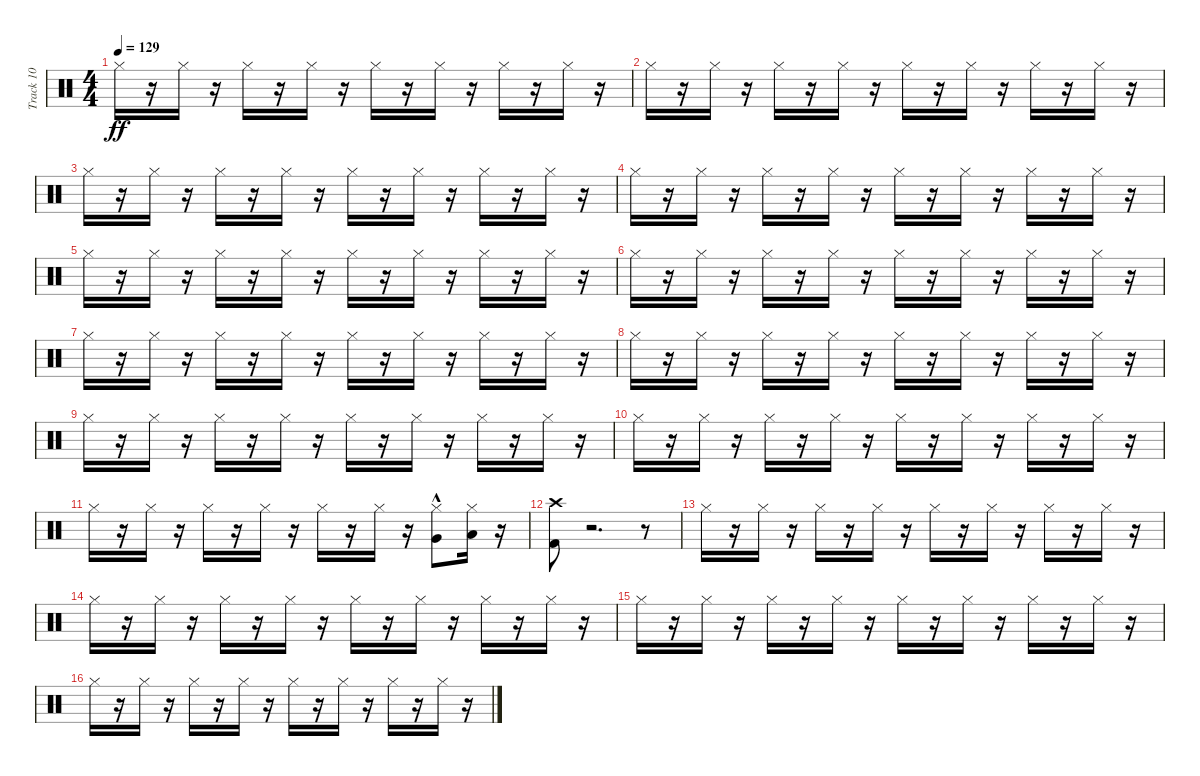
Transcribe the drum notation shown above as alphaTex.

\track ("Track 10" "Track 10") {instrument percussion}
\staff {score}
\articulation defaults
\ts (4 4)
\tempo 129
\clef neutral
\ks c "Hi-Hat (closed)".16{dy ff}
r.16 "Hi-Hat (closed)".16 r.16 "Hi-Hat (closed)".16 r.16 "Hi-Hat (closed)".16 r.16 "Hi-Hat (closed)".16 r.16 "Hi-Hat (closed)".16 r.16 "Hi-Hat (closed)".16 r.16 "Hi-Hat (closed)".16 r.16 |
"Hi-Hat (closed)".16 r.16 "Hi-Hat (closed)".16 r.16 "Hi-Hat (closed)".16 r.16 "Hi-Hat (closed)".16 r.16 "Hi-Hat (closed)".16 r.16 "Hi-Hat (closed)".16 r.16 "Hi-Hat (closed)".16 r.16 "Hi-Hat (closed)".16 r.16 |
"Hi-Hat (closed)".16 r.16 "Hi-Hat (closed)".16 r.16 "Hi-Hat (closed)".16 r.16 "Hi-Hat (closed)".16 r.16 "Hi-Hat (closed)".16 r.16 "Hi-Hat (closed)".16 r.16 "Hi-Hat (closed)".16 r.16 "Hi-Hat (closed)".16 r.16 |
"Hi-Hat (closed)".16 r.16 "Hi-Hat (closed)".16 r.16 "Hi-Hat (closed)".16 r.16 "Hi-Hat (closed)".16 r.16 "Hi-Hat (closed)".16 r.16 "Hi-Hat (closed)".16 r.16 "Hi-Hat (closed)".16 r.16 "Hi-Hat (closed)".16 r.16 |
"Hi-Hat (closed)".16 r.16 "Hi-Hat (closed)".16 r.16 "Hi-Hat (closed)".16 r.16 "Hi-Hat (closed)".16 r.16 "Hi-Hat (closed)".16 r.16 "Hi-Hat (closed)".16 r.16 "Hi-Hat (closed)".16 r.16 "Hi-Hat (closed)".16 r.16 |
"Hi-Hat (closed)".16 r.16 "Hi-Hat (closed)".16 r.16 "Hi-Hat (closed)".16 r.16 "Hi-Hat (closed)".16 r.16 "Hi-Hat (closed)".16 r.16 "Hi-Hat (closed)".16 r.16 "Hi-Hat (closed)".16 r.16 "Hi-Hat (closed)".16 r.16 |
"Hi-Hat (closed)".16 r.16 "Hi-Hat (closed)".16 r.16 "Hi-Hat (closed)".16 r.16 "Hi-Hat (closed)".16 r.16 "Hi-Hat (closed)".16 r.16 "Hi-Hat (closed)".16 r.16 "Hi-Hat (closed)".16 r.16 "Hi-Hat (closed)".16 r.16 |
"Hi-Hat (closed)".16 r.16 "Hi-Hat (closed)".16 r.16 "Hi-Hat (closed)".16 r.16 "Hi-Hat (closed)".16 r.16 "Hi-Hat (closed)".16 r.16 "Hi-Hat (closed)".16 r.16 "Hi-Hat (closed)".16 r.16 "Hi-Hat (closed)".16 r.16 |
"Hi-Hat (closed)".16 r.16 "Hi-Hat (closed)".16 r.16 "Hi-Hat (closed)".16 r.16 "Hi-Hat (closed)".16 r.16 "Hi-Hat (closed)".16 r.16 "Hi-Hat (closed)".16 r.16 "Hi-Hat (closed)".16 r.16 "Hi-Hat (closed)".16 r.16 |
"Hi-Hat (closed)".16 r.16 "Hi-Hat (closed)".16 r.16 "Hi-Hat (closed)".16 r.16 "Hi-Hat (closed)".16 r.16 "Hi-Hat (closed)".16 r.16 "Hi-Hat (closed)".16 r.16 "Hi-Hat (closed)".16 r.16 "Hi-Hat (closed)".16 r.16 |
"Hi-Hat (closed)".16 r.16 "Hi-Hat (closed)".16 r.16 "Hi-Hat (closed)".16 r.16 "Hi-Hat (closed)".16 r.16 "Hi-Hat (closed)".16 r.16 "Hi-Hat (closed)".16 r.16 ("Hi-Hat (closed)" "Very Low Tom (hit)"{hac}).8 ("Hi-Hat (closed)" "Low Floor Tom (hit)").16 r.16 |
("Kick (hit) 2" "Crash high (hit)").8 r.2{d} r.8 |
"Hi-Hat (closed)".16 r.16 "Hi-Hat (closed)".16 r.16 "Hi-Hat (closed)".16 r.16 "Hi-Hat (closed)".16 r.16 "Hi-Hat (closed)".16 r.16 "Hi-Hat (closed)".16 r.16 "Hi-Hat (closed)".16 r.16 "Hi-Hat (closed)".16 r.16 |
"Hi-Hat (closed)".16 r.16 "Hi-Hat (closed)".16 r.16 "Hi-Hat (closed)".16 r.16 "Hi-Hat (closed)".16 r.16 "Hi-Hat (closed)".16 r.16 "Hi-Hat (closed)".16 r.16 "Hi-Hat (closed)".16 r.16 "Hi-Hat (closed)".16 r.16 |
"Hi-Hat (closed)".16 r.16 "Hi-Hat (closed)".16 r.16 "Hi-Hat (closed)".16 r.16 "Hi-Hat (closed)".16 r.16 "Hi-Hat (closed)".16 r.16 "Hi-Hat (closed)".16 r.16 "Hi-Hat (closed)".16 r.16 "Hi-Hat (closed)".16 r.16 |
"Hi-Hat (closed)".16 r.16 "Hi-Hat (closed)".16 r.16 "Hi-Hat (closed)".16 r.16 "Hi-Hat (closed)".16 r.16 "Hi-Hat (closed)".16 r.16 "Hi-Hat (closed)".16 r.16 "Hi-Hat (closed)".16 r.16 "Hi-Hat (closed)".16 r.16
